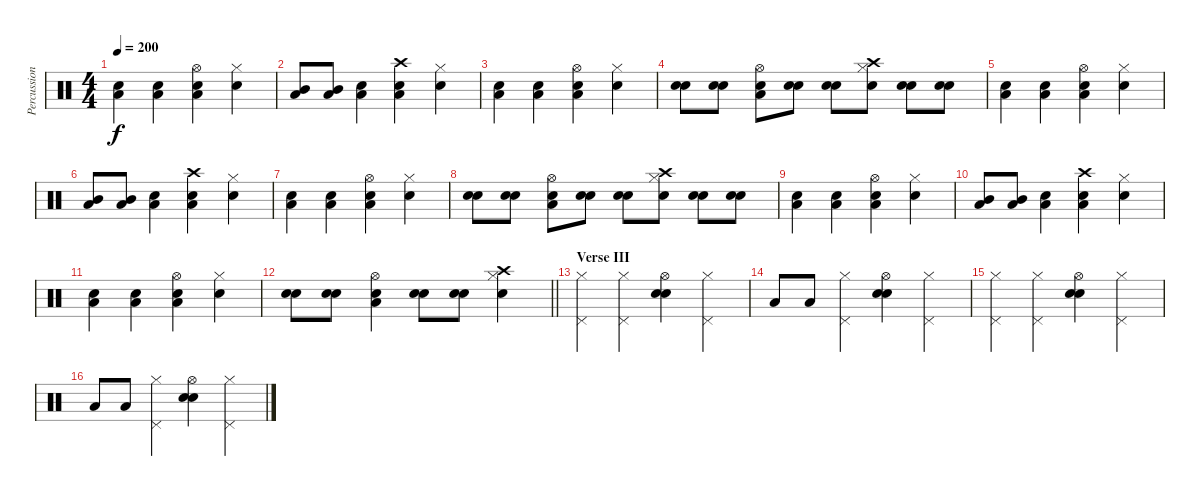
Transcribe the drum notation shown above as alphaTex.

\track ("Percussion" "Percussion") {instrument percussion}
\staff {score}
\articulation defaults
\ts (4 4)
\tempo 200
\clef neutral
\ks c
("Electric Snare (hit)" "Low Tom (hit)").4{dy f} ("Electric Snare (hit)" "Low Tom (hit)").4 ("Snare (hit) 2" "Low Tom (hit)" "Hi-Hat (open)").4 ("Electric Snare (hit)" "Hi-Hat (closed)").4 |
("Mid Tom (hit)" "Low Tom (hit)").8 ("Mid Tom (hit)" "Low Tom (hit)").8 ("Snare (hit) 2" "Low Tom (hit)").4 ("Electric Snare (hit)" "Low Tom (hit)" "Crash high (hit)").4 ("Electric Snare (hit)" "Hi-Hat (closed)").4 |
("Electric Snare (hit)" "Low Tom (hit)").4 ("Electric Snare (hit)" "Low Tom (hit)").4 ("Snare (hit) 2" "Low Tom (hit)" "Hi-Hat (open)").4 ("Electric Snare (hit)" "Hi-Hat (closed)").4 |
("Snare (hit) 2" "Electric Snare (hit)").8 ("Snare (hit) 2" "Electric Snare (hit)").8 ("Electric Snare (hit)" "Low Tom (hit)" "Hi-Hat (open)").8 ("Snare (hit) 2" "Electric Snare (hit)").8 ("Snare (hit) 2" "Electric Snare (hit)").8 ("Electric Snare (hit)" "Hi-Hat (closed)" "Crash high (hit)").8 ("Snare (hit) 2" "Electric Snare (hit)").8 ("Snare (hit) 2" "Electric Snare (hit)").8 |
("Electric Snare (hit)" "Low Tom (hit)").4 ("Electric Snare (hit)" "Low Tom (hit)").4 ("Snare (hit) 2" "Low Tom (hit)" "Hi-Hat (open)").4 ("Electric Snare (hit)" "Hi-Hat (closed)").4 |
("Mid Tom (hit)" "Low Tom (hit)").8 ("Mid Tom (hit)" "Low Tom (hit)").8 ("Snare (hit) 2" "Low Tom (hit)").4 ("Electric Snare (hit)" "Low Tom (hit)" "Crash high (hit)").4 ("Electric Snare (hit)" "Hi-Hat (closed)").4 |
("Electric Snare (hit)" "Low Tom (hit)").4 ("Electric Snare (hit)" "Low Tom (hit)").4 ("Snare (hit) 2" "Low Tom (hit)" "Hi-Hat (open)").4 ("Electric Snare (hit)" "Hi-Hat (closed)").4 |
("Snare (hit) 2" "Electric Snare (hit)").8 ("Snare (hit) 2" "Electric Snare (hit)").8 ("Electric Snare (hit)" "Low Tom (hit)" "Hi-Hat (open)").8 ("Snare (hit) 2" "Electric Snare (hit)").8 ("Snare (hit) 2" "Electric Snare (hit)").8 ("Electric Snare (hit)" "Hi-Hat (closed)" "Crash high (hit)").8 ("Snare (hit) 2" "Electric Snare (hit)").8 ("Snare (hit) 2" "Electric Snare (hit)").8 |
("Electric Snare (hit)" "Low Tom (hit)").4 ("Electric Snare (hit)" "Low Tom (hit)").4 ("Snare (hit) 2" "Low Tom (hit)" "Hi-Hat (open)").4 ("Electric Snare (hit)" "Hi-Hat (closed)").4 |
("Mid Tom (hit)" "Low Tom (hit)").8 ("Mid Tom (hit)" "Low Tom (hit)").8 ("Snare (hit) 2" "Low Tom (hit)").4 ("Electric Snare (hit)" "Low Tom (hit)" "Crash high (hit)").4 ("Electric Snare (hit)" "Hi-Hat (closed)").4 |
("Electric Snare (hit)" "Low Tom (hit)").4 ("Electric Snare (hit)" "Low Tom (hit)").4 ("Snare (hit) 2" "Low Tom (hit)" "Hi-Hat (open)").4 ("Electric Snare (hit)" "Hi-Hat (closed)").4 |
\barLineRight lightlight
("Snare (hit) 2" "Electric Snare (hit)").8 ("Snare (hit) 2" "Electric Snare (hit)").8 ("Electric Snare (hit)" "Low Tom (hit)" "Hi-Hat (open)").4 ("Snare (hit) 2" "Electric Snare (hit)").8 ("Snare (hit) 2" "Electric Snare (hit)").8 ("Electric Snare (hit)" "Hi-Hat (closed)" "Crash high (hit)").4 |
\section ("" "Verse III")
("Hi-Hat (closed)" "Pedal Hi-Hat (hit)").4 ("Hi-Hat (closed)" "Pedal Hi-Hat (hit)").4 ("Snare (hit) 2" "Electric Snare (hit)" "Hi-Hat (open)").4 ("Hi-Hat (closed)" "Pedal Hi-Hat (hit)").4 |
"Low Tom (hit)".8 "Low Tom (hit)".8 ("Hi-Hat (closed)" "Pedal Hi-Hat (hit)").4 ("Snare (hit) 2" "Electric Snare (hit)" "Hi-Hat (open)").4 ("Hi-Hat (closed)" "Pedal Hi-Hat (hit)").4 |
("Hi-Hat (closed)" "Pedal Hi-Hat (hit)").4 ("Hi-Hat (closed)" "Pedal Hi-Hat (hit)").4 ("Snare (hit) 2" "Electric Snare (hit)" "Hi-Hat (open)").4 ("Hi-Hat (closed)" "Pedal Hi-Hat (hit)").4 |
"Low Tom (hit)".8 "Low Tom (hit)".8 ("Hi-Hat (closed)" "Pedal Hi-Hat (hit)").4 ("Snare (hit) 2" "Electric Snare (hit)" "Hi-Hat (open)").4 ("Hi-Hat (closed)" "Pedal Hi-Hat (hit)").4
